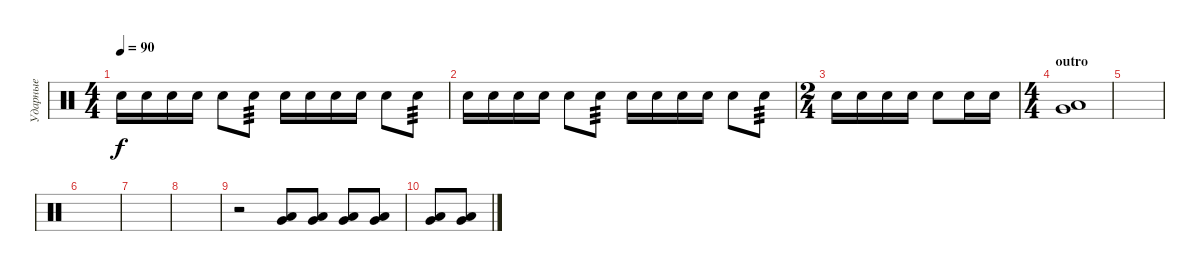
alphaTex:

\track ("Ударные" "Ударные") {instrument percussion}
\staff {score}
\articulation defaults
\ts (4 4)
\tempo 90
\clef neutral
\ks c "Snare (hit) 2".16{dy f} "Snare (hit) 2".16 "Snare (hit) 2".16 "Snare (hit) 2".16 "Snare (hit) 2".8 "Snare (hit) 2".8{tp 3} "Snare (hit) 2".16 "Snare (hit) 2".16 "Snare (hit) 2".16 "Snare (hit) 2".16 "Snare (hit) 2".8 "Snare (hit) 2".8{tp 3}
|
"Snare (hit) 2".16 "Snare (hit) 2".16 "Snare (hit) 2".16 "Snare (hit) 2".16 "Snare (hit) 2".8 "Snare (hit) 2".8{tp 3} "Snare (hit) 2".16 "Snare (hit) 2".16 "Snare (hit) 2".16 "Snare (hit) 2".16 "Snare (hit) 2".8 "Snare (hit) 2".8{tp 3} |
\ts (2 4)
"Snare (hit) 2".16 "Snare (hit) 2".16 "Snare (hit) 2".16 "Snare (hit) 2".16 "Snare (hit) 2".8 "Snare (hit) 2".16 "Snare (hit) 2".16 |
\ts (4 4)
\section ("" "outro")
("Low Floor Tom (hit)" "Very Low Tom (hit)").1 |
|
|
|
|
r.2 ("Low Floor Tom (hit)" "Very Low Tom (hit)").8 ("Low Floor Tom (hit)" "Very Low Tom (hit)").8 ("Low Floor Tom (hit)" "Very Low Tom (hit)").8 ("Low Floor Tom (hit)" "Very Low Tom (hit)").8 |
("Low Floor Tom (hit)" "Very Low Tom (hit)").8 ("Low Floor Tom (hit)" "Very Low Tom (hit)").8
